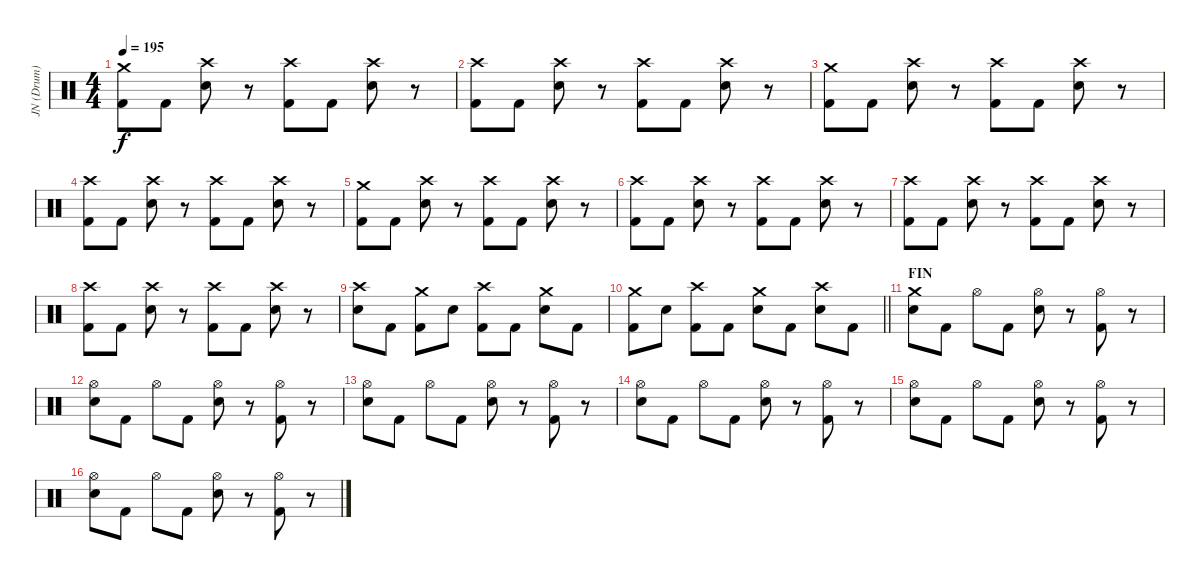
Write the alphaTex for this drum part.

\track ("JN (Drum)" "JN (Drum)") {instrument percussion}
\staff {score}
\articulation defaults
\ts (4 4)
\tempo 195
\clef neutral
\ks c
("Crash medium (hit)" "Kick (hit) 2").8{dy f} "Kick (hit) 2".8 ("Crash high (hit)" "Electric Snare (hit)").8 r.8 ("Crash high (hit)" "Kick (hit) 2").8 "Kick (hit) 2".8 ("Crash high (hit)" "Electric Snare (hit)").8 r.8 |
("Crash high (hit)" "Kick (hit) 2").8 "Kick (hit) 2".8 ("Crash high (hit)" "Electric Snare (hit)").8 r.8 ("Crash high (hit)" "Kick (hit) 2").8 "Kick (hit) 2".8 ("Crash high (hit)" "Electric Snare (hit)").8 r.8 |
("Crash medium (hit)" "Kick (hit) 2").8 "Kick (hit) 2".8 ("Crash high (hit)" "Electric Snare (hit)").8 r.8 ("Crash high (hit)" "Kick (hit) 2").8 "Kick (hit) 2".8 ("Crash high (hit)" "Electric Snare (hit)").8 r.8 |
("Crash high (hit)" "Kick (hit) 2").8 "Kick (hit) 2".8 ("Crash high (hit)" "Electric Snare (hit)").8 r.8 ("Crash high (hit)" "Kick (hit) 2").8 "Kick (hit) 2".8 ("Crash high (hit)" "Electric Snare (hit)").8 r.8 |
("Crash medium (hit)" "Kick (hit) 2").8 "Kick (hit) 2".8 ("Crash high (hit)" "Electric Snare (hit)").8 r.8 ("Crash high (hit)" "Kick (hit) 2").8 "Kick (hit) 2".8 ("Crash high (hit)" "Electric Snare (hit)").8 r.8 |
("Crash high (hit)" "Kick (hit) 2").8 "Kick (hit) 2".8 ("Crash high (hit)" "Electric Snare (hit)").8 r.8 ("Crash high (hit)" "Kick (hit) 2").8 "Kick (hit) 2".8 ("Crash high (hit)" "Electric Snare (hit)").8 r.8 |
("Crash high (hit)" "Kick (hit) 2").8 "Kick (hit) 2".8 ("Crash high (hit)" "Electric Snare (hit)").8 r.8 ("Crash high (hit)" "Kick (hit) 2").8 "Kick (hit) 2".8 ("Crash high (hit)" "Electric Snare (hit)").8 r.8 |
("Crash high (hit)" "Kick (hit) 2").8 "Kick (hit) 2".8 ("Crash high (hit)" "Electric Snare (hit)").8 r.8 ("Crash high (hit)" "Kick (hit) 2").8 "Kick (hit) 2".8 ("Crash high (hit)" "Electric Snare (hit)").8 r.8 |
("Crash high (hit)" "Electric Snare (hit)").8 "Kick (hit) 2".8 ("Crash medium (hit)" "Kick (hit) 2").8 "Electric Snare (hit)".8 ("Crash high (hit)" "Kick (hit) 2").8 "Kick (hit) 2".8 ("Crash medium (hit)" "Electric Snare (hit)").8 "Kick (hit) 2".8 |
\barLineRight lightlight
("Crash medium (hit)" "Kick (hit) 2").8 "Electric Snare (hit)".8 ("Crash high (hit)" "Kick (hit) 2").8 "Kick (hit) 2".8 ("Crash medium (hit)" "Electric Snare (hit)").8 "Kick (hit) 2".8 ("Crash high (hit)" "Electric Snare (hit)").8 "Kick (hit) 2".8 |
\section ("" "FIN")
("Crash medium (hit)" "Electric Snare (hit)").8 "Kick (hit) 2".8 "Hi-Hat (open)".8 "Kick (hit) 2".8 ("Hi-Hat (open)" "Electric Snare (hit)").8 r.8 ("Hi-Hat (open)" "Kick (hit) 2").8 r.8 |
("Hi-Hat (open)" "Electric Snare (hit)").8 "Kick (hit) 2".8 "Hi-Hat (open)".8 "Kick (hit) 2".8 ("Hi-Hat (open)" "Electric Snare (hit)").8 r.8 ("Hi-Hat (open)" "Kick (hit) 2").8 r.8 |
("Hi-Hat (open)" "Electric Snare (hit)").8 "Kick (hit) 2".8 "Hi-Hat (open)".8 "Kick (hit) 2".8 ("Hi-Hat (open)" "Electric Snare (hit)").8 r.8 ("Hi-Hat (open)" "Kick (hit) 2").8 r.8 |
("Hi-Hat (open)" "Electric Snare (hit)").8 "Kick (hit) 2".8 "Hi-Hat (open)".8 "Kick (hit) 2".8 ("Hi-Hat (open)" "Electric Snare (hit)").8 r.8 ("Hi-Hat (open)" "Kick (hit) 2").8 r.8 |
("Hi-Hat (open)" "Electric Snare (hit)").8 "Kick (hit) 2".8 "Hi-Hat (open)".8 "Kick (hit) 2".8 ("Hi-Hat (open)" "Electric Snare (hit)").8 r.8 ("Hi-Hat (open)" "Kick (hit) 2").8 r.8 |
("Hi-Hat (open)" "Electric Snare (hit)").8 "Kick (hit) 2".8 "Hi-Hat (open)".8 "Kick (hit) 2".8 ("Hi-Hat (open)" "Electric Snare (hit)").8 r.8 ("Hi-Hat (open)" "Kick (hit) 2").8 r.8
